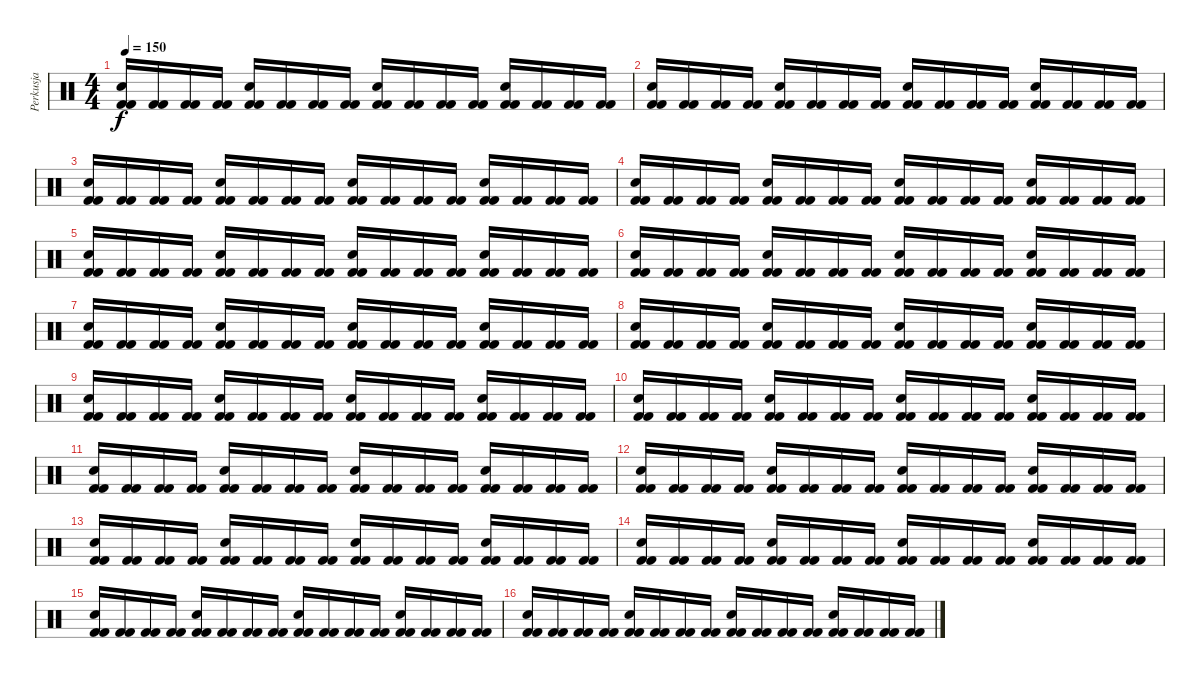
\track ("Perkusja" "Perkusja") {instrument percussion}
\staff {score}
\articulation defaults
\ts (4 4)
\tempo 150
\clef neutral
\ks c
("Snare (hit) 2" "Kick (hit) 2" "Kick (hit) 2").16{dy f} ("Kick (hit) 2" "Kick (hit) 2").16 ("Kick (hit) 2" "Kick (hit) 2").16 ("Kick (hit) 2" "Kick (hit) 2").16 ("Electric Snare (hit)" "Kick (hit) 2" "Kick (hit) 2").16 ("Kick (hit) 2" "Kick (hit) 2").16 ("Kick (hit) 2" "Kick (hit) 2").16 ("Kick (hit) 2" "Kick (hit) 2").16 ("Snare (hit) 2" "Kick (hit) 2" "Kick (hit) 2").16 ("Kick (hit) 2" "Kick (hit) 2").16 ("Kick (hit) 2" "Kick (hit) 2").16 ("Kick (hit) 2" "Kick (hit) 2").16 ("Electric Snare (hit)" "Kick (hit) 2" "Kick (hit) 2").16 ("Kick (hit) 2" "Kick (hit) 2").16 ("Kick (hit) 2" "Kick (hit) 2").16 ("Kick (hit) 2" "Kick (hit) 2").16 |
("Snare (hit) 2" "Kick (hit) 2" "Kick (hit) 2").16 ("Kick (hit) 2" "Kick (hit) 2").16 ("Kick (hit) 2" "Kick (hit) 2").16 ("Kick (hit) 2" "Kick (hit) 2").16 ("Electric Snare (hit)" "Kick (hit) 2" "Kick (hit) 2").16 ("Kick (hit) 2" "Kick (hit) 2").16 ("Kick (hit) 2" "Kick (hit) 2").16 ("Kick (hit) 2" "Kick (hit) 2").16 ("Snare (hit) 2" "Kick (hit) 2" "Kick (hit) 2").16 ("Kick (hit) 2" "Kick (hit) 2").16 ("Kick (hit) 2" "Kick (hit) 2").16 ("Kick (hit) 2" "Kick (hit) 2").16 ("Electric Snare (hit)" "Kick (hit) 2" "Kick (hit) 2").16 ("Kick (hit) 2" "Kick (hit) 2").16 ("Kick (hit) 2" "Kick (hit) 2").16 ("Kick (hit) 2" "Kick (hit) 2").16 |
("Snare (hit) 2" "Kick (hit) 2" "Kick (hit) 2").16 ("Kick (hit) 2" "Kick (hit) 2").16 ("Kick (hit) 2" "Kick (hit) 2").16 ("Kick (hit) 2" "Kick (hit) 2").16 ("Electric Snare (hit)" "Kick (hit) 2" "Kick (hit) 2").16 ("Kick (hit) 2" "Kick (hit) 2").16 ("Kick (hit) 2" "Kick (hit) 2").16 ("Kick (hit) 2" "Kick (hit) 2").16 ("Snare (hit) 2" "Kick (hit) 2" "Kick (hit) 2").16 ("Kick (hit) 2" "Kick (hit) 2").16 ("Kick (hit) 2" "Kick (hit) 2").16 ("Kick (hit) 2" "Kick (hit) 2").16 ("Electric Snare (hit)" "Kick (hit) 2" "Kick (hit) 2").16 ("Kick (hit) 2" "Kick (hit) 2").16 ("Kick (hit) 2" "Kick (hit) 2").16 ("Kick (hit) 2" "Kick (hit) 2").16 |
("Snare (hit) 2" "Kick (hit) 2" "Kick (hit) 2").16 ("Kick (hit) 2" "Kick (hit) 2").16 ("Kick (hit) 2" "Kick (hit) 2").16 ("Kick (hit) 2" "Kick (hit) 2").16 ("Electric Snare (hit)" "Kick (hit) 2" "Kick (hit) 2").16 ("Kick (hit) 2" "Kick (hit) 2").16 ("Kick (hit) 2" "Kick (hit) 2").16 ("Kick (hit) 2" "Kick (hit) 2").16 ("Snare (hit) 2" "Kick (hit) 2" "Kick (hit) 2").16 ("Kick (hit) 2" "Kick (hit) 2").16 ("Kick (hit) 2" "Kick (hit) 2").16 ("Kick (hit) 2" "Kick (hit) 2").16 ("Electric Snare (hit)" "Kick (hit) 2" "Kick (hit) 2").16 ("Kick (hit) 2" "Kick (hit) 2").16 ("Kick (hit) 2" "Kick (hit) 2").16 ("Kick (hit) 2" "Kick (hit) 2").16 |
("Snare (hit) 2" "Kick (hit) 2" "Kick (hit) 2").16 ("Kick (hit) 2" "Kick (hit) 2").16 ("Kick (hit) 2" "Kick (hit) 2").16 ("Kick (hit) 2" "Kick (hit) 2").16 ("Electric Snare (hit)" "Kick (hit) 2" "Kick (hit) 2").16 ("Kick (hit) 2" "Kick (hit) 2").16 ("Kick (hit) 2" "Kick (hit) 2").16 ("Kick (hit) 2" "Kick (hit) 2").16 ("Snare (hit) 2" "Kick (hit) 2" "Kick (hit) 2").16 ("Kick (hit) 2" "Kick (hit) 2").16 ("Kick (hit) 2" "Kick (hit) 2").16 ("Kick (hit) 2" "Kick (hit) 2").16 ("Electric Snare (hit)" "Kick (hit) 2" "Kick (hit) 2").16 ("Kick (hit) 2" "Kick (hit) 2").16 ("Kick (hit) 2" "Kick (hit) 2").16 ("Kick (hit) 2" "Kick (hit) 2").16 |
("Snare (hit) 2" "Kick (hit) 2" "Kick (hit) 2").16 ("Kick (hit) 2" "Kick (hit) 2").16 ("Kick (hit) 2" "Kick (hit) 2").16 ("Kick (hit) 2" "Kick (hit) 2").16 ("Electric Snare (hit)" "Kick (hit) 2" "Kick (hit) 2").16 ("Kick (hit) 2" "Kick (hit) 2").16 ("Kick (hit) 2" "Kick (hit) 2").16 ("Kick (hit) 2" "Kick (hit) 2").16 ("Snare (hit) 2" "Kick (hit) 2" "Kick (hit) 2").16 ("Kick (hit) 2" "Kick (hit) 2").16 ("Kick (hit) 2" "Kick (hit) 2").16 ("Kick (hit) 2" "Kick (hit) 2").16 ("Electric Snare (hit)" "Kick (hit) 2" "Kick (hit) 2").16 ("Kick (hit) 2" "Kick (hit) 2").16 ("Kick (hit) 2" "Kick (hit) 2").16 ("Kick (hit) 2" "Kick (hit) 2").16 |
("Snare (hit) 2" "Kick (hit) 2" "Kick (hit) 2").16 ("Kick (hit) 2" "Kick (hit) 2").16 ("Kick (hit) 2" "Kick (hit) 2").16 ("Kick (hit) 2" "Kick (hit) 2").16 ("Electric Snare (hit)" "Kick (hit) 2" "Kick (hit) 2").16 ("Kick (hit) 2" "Kick (hit) 2").16 ("Kick (hit) 2" "Kick (hit) 2").16 ("Kick (hit) 2" "Kick (hit) 2").16 ("Snare (hit) 2" "Kick (hit) 2" "Kick (hit) 2").16 ("Kick (hit) 2" "Kick (hit) 2").16 ("Kick (hit) 2" "Kick (hit) 2").16 ("Kick (hit) 2" "Kick (hit) 2").16 ("Electric Snare (hit)" "Kick (hit) 2" "Kick (hit) 2").16 ("Kick (hit) 2" "Kick (hit) 2").16 ("Kick (hit) 2" "Kick (hit) 2").16 ("Kick (hit) 2" "Kick (hit) 2").16 |
("Snare (hit) 2" "Kick (hit) 2" "Kick (hit) 2").16 ("Kick (hit) 2" "Kick (hit) 2").16 ("Kick (hit) 2" "Kick (hit) 2").16 ("Kick (hit) 2" "Kick (hit) 2").16 ("Electric Snare (hit)" "Kick (hit) 2" "Kick (hit) 2").16 ("Kick (hit) 2" "Kick (hit) 2").16 ("Kick (hit) 2" "Kick (hit) 2").16 ("Kick (hit) 2" "Kick (hit) 2").16 ("Snare (hit) 2" "Kick (hit) 2" "Kick (hit) 2").16 ("Kick (hit) 2" "Kick (hit) 2").16 ("Kick (hit) 2" "Kick (hit) 2").16 ("Kick (hit) 2" "Kick (hit) 2").16 ("Electric Snare (hit)" "Kick (hit) 2" "Kick (hit) 2").16 ("Kick (hit) 2" "Kick (hit) 2").16 ("Kick (hit) 2" "Kick (hit) 2").16 ("Kick (hit) 2" "Kick (hit) 2").16 |
("Snare (hit) 2" "Kick (hit) 2" "Kick (hit) 2").16 ("Kick (hit) 2" "Kick (hit) 2").16 ("Kick (hit) 2" "Kick (hit) 2").16 ("Kick (hit) 2" "Kick (hit) 2").16 ("Electric Snare (hit)" "Kick (hit) 2" "Kick (hit) 2").16 ("Kick (hit) 2" "Kick (hit) 2").16 ("Kick (hit) 2" "Kick (hit) 2").16 ("Kick (hit) 2" "Kick (hit) 2").16 ("Snare (hit) 2" "Kick (hit) 2" "Kick (hit) 2").16 ("Kick (hit) 2" "Kick (hit) 2").16 ("Kick (hit) 2" "Kick (hit) 2").16 ("Kick (hit) 2" "Kick (hit) 2").16 ("Electric Snare (hit)" "Kick (hit) 2" "Kick (hit) 2").16 ("Kick (hit) 2" "Kick (hit) 2").16 ("Kick (hit) 2" "Kick (hit) 2").16 ("Kick (hit) 2" "Kick (hit) 2").16 |
("Snare (hit) 2" "Kick (hit) 2" "Kick (hit) 2").16 ("Kick (hit) 2" "Kick (hit) 2").16 ("Kick (hit) 2" "Kick (hit) 2").16 ("Kick (hit) 2" "Kick (hit) 2").16 ("Electric Snare (hit)" "Kick (hit) 2" "Kick (hit) 2").16 ("Kick (hit) 2" "Kick (hit) 2").16 ("Kick (hit) 2" "Kick (hit) 2").16 ("Kick (hit) 2" "Kick (hit) 2").16 ("Snare (hit) 2" "Kick (hit) 2" "Kick (hit) 2").16 ("Kick (hit) 2" "Kick (hit) 2").16 ("Kick (hit) 2" "Kick (hit) 2").16 ("Kick (hit) 2" "Kick (hit) 2").16 ("Electric Snare (hit)" "Kick (hit) 2" "Kick (hit) 2").16 ("Kick (hit) 2" "Kick (hit) 2").16 ("Kick (hit) 2" "Kick (hit) 2").16 ("Kick (hit) 2" "Kick (hit) 2").16 |
("Snare (hit) 2" "Kick (hit) 2" "Kick (hit) 2").16 ("Kick (hit) 2" "Kick (hit) 2").16 ("Kick (hit) 2" "Kick (hit) 2").16 ("Kick (hit) 2" "Kick (hit) 2").16 ("Electric Snare (hit)" "Kick (hit) 2" "Kick (hit) 2").16 ("Kick (hit) 2" "Kick (hit) 2").16 ("Kick (hit) 2" "Kick (hit) 2").16 ("Kick (hit) 2" "Kick (hit) 2").16 ("Snare (hit) 2" "Kick (hit) 2" "Kick (hit) 2").16 ("Kick (hit) 2" "Kick (hit) 2").16 ("Kick (hit) 2" "Kick (hit) 2").16 ("Kick (hit) 2" "Kick (hit) 2").16 ("Electric Snare (hit)" "Kick (hit) 2" "Kick (hit) 2").16 ("Kick (hit) 2" "Kick (hit) 2").16 ("Kick (hit) 2" "Kick (hit) 2").16 ("Kick (hit) 2" "Kick (hit) 2").16 |
("Snare (hit) 2" "Kick (hit) 2" "Kick (hit) 2").16 ("Kick (hit) 2" "Kick (hit) 2").16 ("Kick (hit) 2" "Kick (hit) 2").16 ("Kick (hit) 2" "Kick (hit) 2").16 ("Electric Snare (hit)" "Kick (hit) 2" "Kick (hit) 2").16 ("Kick (hit) 2" "Kick (hit) 2").16 ("Kick (hit) 2" "Kick (hit) 2").16 ("Kick (hit) 2" "Kick (hit) 2").16 ("Snare (hit) 2" "Kick (hit) 2" "Kick (hit) 2").16 ("Kick (hit) 2" "Kick (hit) 2").16 ("Kick (hit) 2" "Kick (hit) 2").16 ("Kick (hit) 2" "Kick (hit) 2").16 ("Electric Snare (hit)" "Kick (hit) 2" "Kick (hit) 2").16 ("Kick (hit) 2" "Kick (hit) 2").16 ("Kick (hit) 2" "Kick (hit) 2").16 ("Kick (hit) 2" "Kick (hit) 2").16 |
("Snare (hit) 2" "Kick (hit) 2" "Kick (hit) 2").16 ("Kick (hit) 2" "Kick (hit) 2").16 ("Kick (hit) 2" "Kick (hit) 2").16 ("Kick (hit) 2" "Kick (hit) 2").16 ("Electric Snare (hit)" "Kick (hit) 2" "Kick (hit) 2").16 ("Kick (hit) 2" "Kick (hit) 2").16 ("Kick (hit) 2" "Kick (hit) 2").16 ("Kick (hit) 2" "Kick (hit) 2").16 ("Snare (hit) 2" "Kick (hit) 2" "Kick (hit) 2").16 ("Kick (hit) 2" "Kick (hit) 2").16 ("Kick (hit) 2" "Kick (hit) 2").16 ("Kick (hit) 2" "Kick (hit) 2").16 ("Electric Snare (hit)" "Kick (hit) 2" "Kick (hit) 2").16 ("Kick (hit) 2" "Kick (hit) 2").16 ("Kick (hit) 2" "Kick (hit) 2").16 ("Kick (hit) 2" "Kick (hit) 2").16 |
("Snare (hit) 2" "Kick (hit) 2" "Kick (hit) 2").16 ("Kick (hit) 2" "Kick (hit) 2").16 ("Kick (hit) 2" "Kick (hit) 2").16 ("Kick (hit) 2" "Kick (hit) 2").16 ("Electric Snare (hit)" "Kick (hit) 2" "Kick (hit) 2").16 ("Kick (hit) 2" "Kick (hit) 2").16 ("Kick (hit) 2" "Kick (hit) 2").16 ("Kick (hit) 2" "Kick (hit) 2").16 ("Snare (hit) 2" "Kick (hit) 2" "Kick (hit) 2").16 ("Kick (hit) 2" "Kick (hit) 2").16 ("Kick (hit) 2" "Kick (hit) 2").16 ("Kick (hit) 2" "Kick (hit) 2").16 ("Electric Snare (hit)" "Kick (hit) 2" "Kick (hit) 2").16 ("Kick (hit) 2" "Kick (hit) 2").16 ("Kick (hit) 2" "Kick (hit) 2").16 ("Kick (hit) 2" "Kick (hit) 2").16 |
("Snare (hit) 2" "Kick (hit) 2" "Kick (hit) 2").16 ("Kick (hit) 2" "Kick (hit) 2").16 ("Kick (hit) 2" "Kick (hit) 2").16 ("Kick (hit) 2" "Kick (hit) 2").16 ("Electric Snare (hit)" "Kick (hit) 2" "Kick (hit) 2").16 ("Kick (hit) 2" "Kick (hit) 2").16 ("Kick (hit) 2" "Kick (hit) 2").16 ("Kick (hit) 2" "Kick (hit) 2").16 ("Snare (hit) 2" "Kick (hit) 2" "Kick (hit) 2").16 ("Kick (hit) 2" "Kick (hit) 2").16 ("Kick (hit) 2" "Kick (hit) 2").16 ("Kick (hit) 2" "Kick (hit) 2").16 ("Electric Snare (hit)" "Kick (hit) 2" "Kick (hit) 2").16 ("Kick (hit) 2" "Kick (hit) 2").16 ("Kick (hit) 2" "Kick (hit) 2").16 ("Kick (hit) 2" "Kick (hit) 2").16 |
("Snare (hit) 2" "Kick (hit) 2" "Kick (hit) 2").16 ("Kick (hit) 2" "Kick (hit) 2").16 ("Kick (hit) 2" "Kick (hit) 2").16 ("Kick (hit) 2" "Kick (hit) 2").16 ("Electric Snare (hit)" "Kick (hit) 2" "Kick (hit) 2").16 ("Kick (hit) 2" "Kick (hit) 2").16 ("Kick (hit) 2" "Kick (hit) 2").16 ("Kick (hit) 2" "Kick (hit) 2").16 ("Snare (hit) 2" "Kick (hit) 2" "Kick (hit) 2").16 ("Kick (hit) 2" "Kick (hit) 2").16 ("Kick (hit) 2" "Kick (hit) 2").16 ("Kick (hit) 2" "Kick (hit) 2").16 ("Electric Snare (hit)" "Kick (hit) 2" "Kick (hit) 2").16 ("Kick (hit) 2" "Kick (hit) 2").16 ("Kick (hit) 2" "Kick (hit) 2").16 ("Kick (hit) 2" "Kick (hit) 2").16
